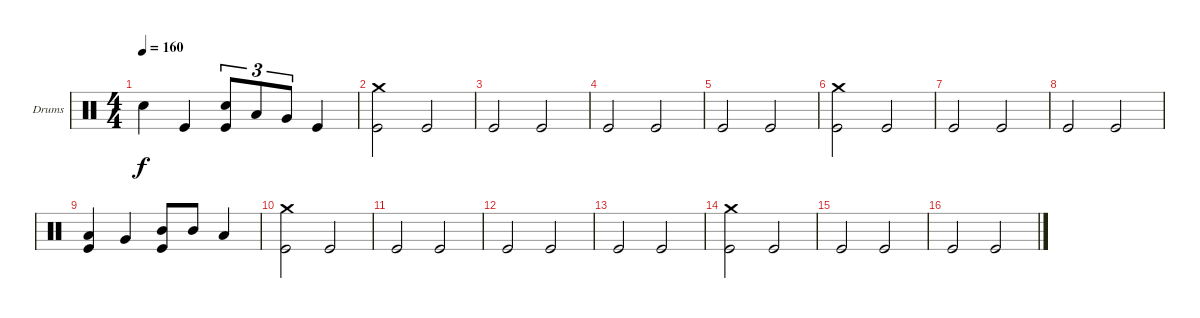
\bracketExtendMode groupsimilarinstruments
\firstSystemTrackNameOrientation horizontal
\otherSystemsTrackNameOrientation horizontal
\track ("Drumkit" "Drums") {instrument percussion}
\staff {score}
\articulation defaults
\ts (4 4)
\tempo 160
\clef neutral
\ks c "Snare (hit) 2".4{dy f} "Kick (hit)".4
("Snare (hit) 2" "Kick (hit)").8{tu (3 2)} "Low Tom (hit)".8{tu (3 2)} "Very Low Tom (hit)".8{tu (3 2)} "Kick (hit)".4 |
("Crash medium (hit)" "Kick (hit)").2 "Kick (hit)".2 |
"Kick (hit)".2 "Kick (hit)".2 |
"Kick (hit)".2 "Kick (hit)".2 |
"Kick (hit)".2 "Kick (hit)".2 |
("Kick (hit)" "Crash medium (hit)").2 "Kick (hit)".2 |
"Kick (hit)".2 "Kick (hit)".2 |
"Kick (hit)".2 "Kick (hit)".2 |
("Low Tom (hit)" "Kick (hit)").4 "Very Low Tom (hit)".4 ("Mid Tom (hit)" "Kick (hit)").8 "Mid Tom (hit)".8 "Low Tom (hit)".4 |
("Crash medium (hit)" "Kick (hit)").2 "Kick (hit)".2 |
"Kick (hit)".2 "Kick (hit)".2 |
"Kick (hit)".2 "Kick (hit)".2 |
"Kick (hit)".2 "Kick (hit)".2 |
("Crash medium (hit)" "Kick (hit)").2 "Kick (hit)".2 |
"Kick (hit)".2 "Kick (hit)".2 |
"Kick (hit)".2 "Kick (hit)".2
